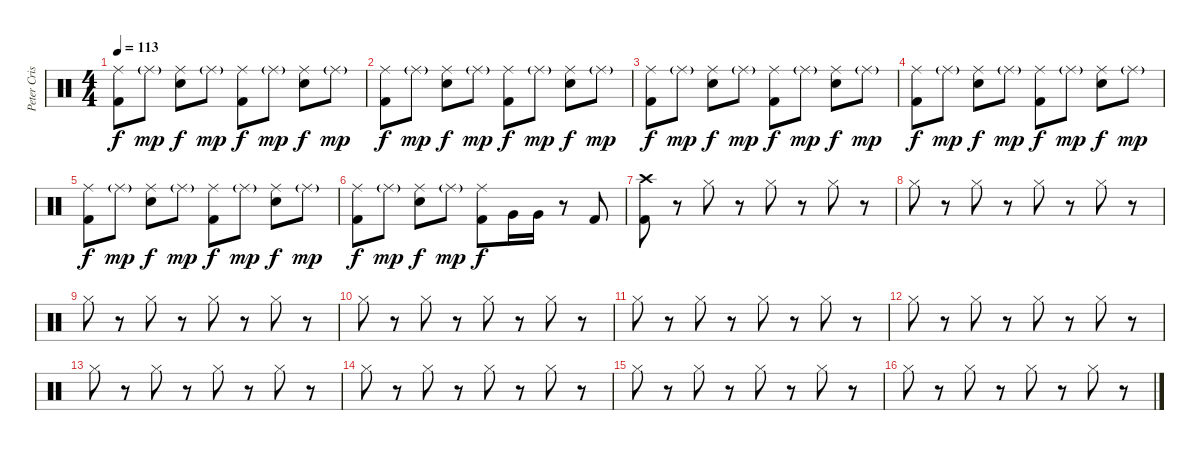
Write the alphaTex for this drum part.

\track ("Peter Criss" "Peter Cris") {instrument percussion}
\staff {score}
\articulation defaults
\ts (4 4)
\tempo 113
\clef neutral
\ks c
("Ride (middle)" "Kick (hit) 2").8{dy f} "Ride (middle)"{g}.8{dy mp} ("Ride (middle)" "Electric Snare (hit)").8{dy f} "Ride (middle)"{g}.8{dy mp} ("Ride (middle)" "Kick (hit) 2").8{dy f} "Ride (middle)"{g}.8{dy mp} ("Ride (middle)" "Electric Snare (hit)").8{dy f} "Ride (middle)"{g}.8{dy mp} |
("Ride (middle)" "Kick (hit) 2").8{dy f} "Ride (middle)"{g}.8{dy mp} ("Ride (middle)" "Electric Snare (hit)").8{dy f} "Ride (middle)"{g}.8{dy mp} ("Ride (middle)" "Kick (hit) 2").8{dy f} "Ride (middle)"{g}.8{dy mp} ("Ride (middle)" "Electric Snare (hit)").8{dy f} "Ride (middle)"{g}.8{dy mp} |
("Ride (middle)" "Kick (hit) 2").8{dy f} "Ride (middle)"{g}.8{dy mp} ("Ride (middle)" "Electric Snare (hit)").8{dy f} "Ride (middle)"{g}.8{dy mp} ("Ride (middle)" "Kick (hit) 2").8{dy f} "Ride (middle)"{g}.8{dy mp} ("Ride (middle)" "Electric Snare (hit)").8{dy f} "Ride (middle)"{g}.8{dy mp} |
("Ride (middle)" "Kick (hit) 2").8{dy f} "Ride (middle)"{g}.8{dy mp} ("Ride (middle)" "Electric Snare (hit)").8{dy f} "Ride (middle)"{g}.8{dy mp} ("Ride (middle)" "Kick (hit) 2").8{dy f} "Ride (middle)"{g}.8{dy mp} ("Ride (middle)" "Electric Snare (hit)").8{dy f} "Ride (middle)"{g}.8{dy mp} |
("Ride (middle)" "Kick (hit) 2").8{dy f} "Ride (middle)"{g}.8{dy mp} ("Ride (middle)" "Electric Snare (hit)").8{dy f} "Ride (middle)"{g}.8{dy mp} ("Ride (middle)" "Kick (hit) 2").8{dy f} "Ride (middle)"{g}.8{dy mp} ("Ride (middle)" "Electric Snare (hit)").8{dy f} "Ride (middle)"{g}.8{dy mp} |
("Ride (middle)" "Kick (hit) 2").8{dy f} "Ride (middle)"{g}.8{dy mp} ("Ride (middle)" "Electric Snare (hit)").8{dy f} "Ride (middle)"{g}.8{dy mp} ("Ride (middle)" "Kick (hit) 2").8{dy f} "Very Low Tom (hit)".16 "Very Low Tom (hit)".16 r.8 "Kick (hit) 2".8 |
("Crash high (hit)" "Kick (hit) 2").8 r.8 "Hi-Hat (closed)".8 r.8 "Hi-Hat (closed)".8 r.8 "Hi-Hat (closed)".8 r.8 |
"Hi-Hat (closed)".8 r.8 "Hi-Hat (closed)".8 r.8 "Hi-Hat (closed)".8 r.8 "Hi-Hat (closed)".8 r.8 |
"Hi-Hat (closed)".8 r.8 "Hi-Hat (closed)".8 r.8 "Hi-Hat (closed)".8 r.8 "Hi-Hat (closed)".8 r.8 |
"Hi-Hat (closed)".8 r.8 "Hi-Hat (closed)".8 r.8 "Hi-Hat (closed)".8 r.8 "Hi-Hat (closed)".8 r.8 |
"Hi-Hat (closed)".8 r.8 "Hi-Hat (closed)".8 r.8 "Hi-Hat (closed)".8 r.8 "Hi-Hat (closed)".8 r.8 |
"Hi-Hat (closed)".8 r.8 "Hi-Hat (closed)".8 r.8 "Hi-Hat (closed)".8 r.8 "Hi-Hat (closed)".8 r.8 |
"Hi-Hat (closed)".8 r.8 "Hi-Hat (closed)".8 r.8 "Hi-Hat (closed)".8 r.8 "Hi-Hat (closed)".8 r.8 |
"Hi-Hat (closed)".8 r.8 "Hi-Hat (closed)".8 r.8 "Hi-Hat (closed)".8 r.8 "Hi-Hat (closed)".8 r.8 |
"Hi-Hat (closed)".8 r.8 "Hi-Hat (closed)".8 r.8 "Hi-Hat (closed)".8 r.8 "Hi-Hat (closed)".8 r.8 |
"Hi-Hat (closed)".8 r.8 "Hi-Hat (closed)".8 r.8 "Hi-Hat (closed)".8 r.8 "Hi-Hat (closed)".8 r.8
